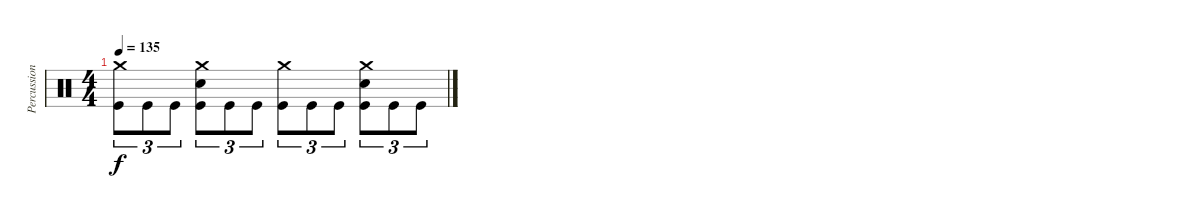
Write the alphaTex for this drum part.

\track ("Percussions" "Percussion") {instrument percussion}
\staff {score}
\articulation defaults
\ts (4 4)
\tempo 135
\clef neutral
\ks c
("Crash medium (hit)" "Kick (hit)").8{tu (3 2) dy f} "Kick (hit)".8{tu (3 2)} "Kick (hit)".8{tu (3 2)} ("Crash medium (hit)" "Electric Snare (hit)" "Kick (hit)").8{tu (3 2)} "Kick (hit)".8{tu (3 2)} "Kick (hit)".8{tu (3 2)} ("Crash medium (hit)" "Kick (hit)").8{tu (3 2)} "Kick (hit)".8{tu (3 2)} "Kick (hit)".8{tu (3 2)} ("Crash medium (hit)" "Electric Snare (hit)" "Kick (hit)").8{tu (3 2)} "Kick (hit)".8{tu (3 2)} "Kick (hit)".8{tu (3 2)}
